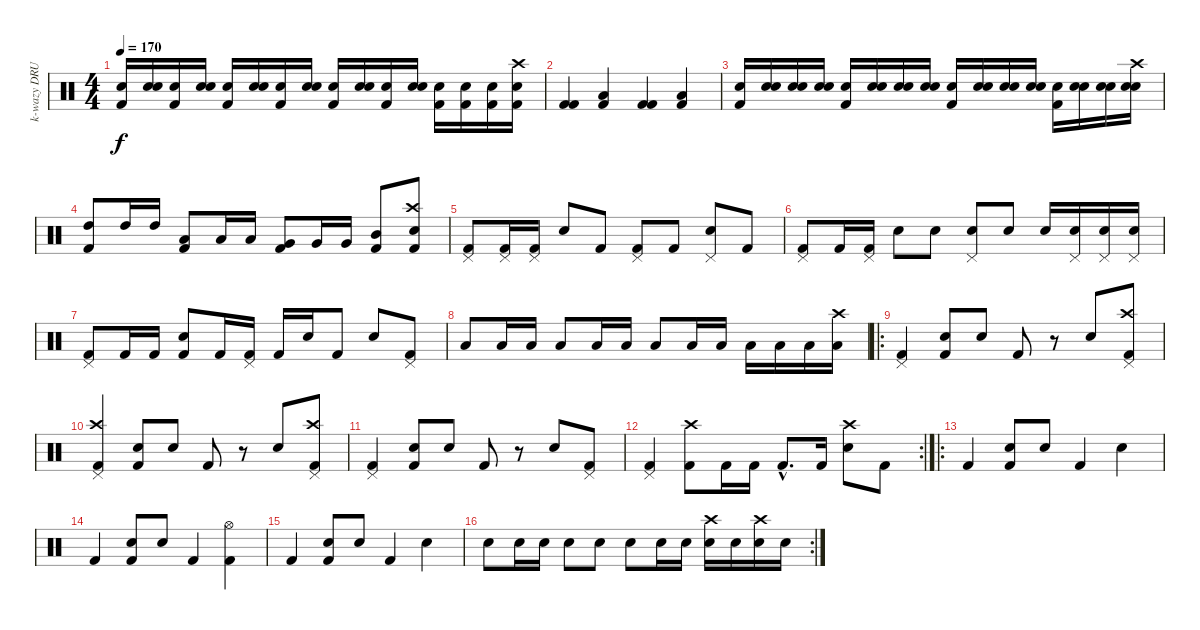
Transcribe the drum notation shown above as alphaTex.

\track ("k-wazy DRUMZ" "k-wazy DRU") {instrument percussion}
\staff {score}
\articulation defaults
\ts (4 4)
\tempo 170
\clef neutral
\ks c
("Electric Snare (hit)" "Kick (hit) 2").16{dy f} ("Electric Snare (hit)" "Electric Snare (hit)").16 ("Electric Snare (hit)" "Kick (hit) 2").16 ("Electric Snare (hit)" "Electric Snare (hit)").16 ("Electric Snare (hit)" "Kick (hit) 2").16 ("Electric Snare (hit)" "Electric Snare (hit)").16 ("Electric Snare (hit)" "Kick (hit) 2").16 ("Electric Snare (hit)" "Electric Snare (hit)").16 ("Electric Snare (hit)" "Kick (hit) 2").16 ("Electric Snare (hit)" "Electric Snare (hit)").16 ("Electric Snare (hit)" "Kick (hit) 2").16 ("Electric Snare (hit)" "Electric Snare (hit)").16 ("Electric Snare (hit)" "Kick (hit) 2").16 ("Electric Snare (hit)" "Kick (hit) 2").16 ("Electric Snare (hit)" "Kick (hit) 2").16 ("Crash high (hit)" "Electric Snare (hit)" "Kick (hit) 2").16 |
("Kick (hit) 2" "Kick (hit) 2").4 ("Low Tom (hit)" "Kick (hit) 2").4 ("Kick (hit) 2" "Kick (hit) 2").4 ("Low Tom (hit)" "Kick (hit) 2").4 |
("Electric Snare (hit)" "Kick (hit) 2").16 ("Electric Snare (hit)" "Electric Snare (hit)").16 ("Electric Snare (hit)" "Electric Snare (hit)").16 ("Electric Snare (hit)" "Electric Snare (hit)").16 ("Electric Snare (hit)" "Kick (hit) 2").16 ("Electric Snare (hit)" "Electric Snare (hit)").16 ("Electric Snare (hit)" "Electric Snare (hit)").16 ("Electric Snare (hit)" "Electric Snare (hit)").16 ("Electric Snare (hit)" "Kick (hit) 2").16 ("Electric Snare (hit)" "Electric Snare (hit)").16 ("Electric Snare (hit)" "Electric Snare (hit)").16 ("Electric Snare (hit)" "Electric Snare (hit)").16 ("Electric Snare (hit)" "Kick (hit) 2").16 ("Electric Snare (hit)" "Electric Snare (hit)").16 ("Electric Snare (hit)" "Electric Snare (hit)").16 ("Crash high (hit)" "Electric Snare (hit)" "Electric Snare (hit)").16 |
("High Tom (hit)" "Kick (hit) 2").8 "High Tom (hit)".16 "High Tom (hit)".16 ("Low Tom (hit)" "Kick (hit) 2").8 "Low Tom (hit)".16 "Low Tom (hit)".16 ("Very Low Tom (hit)" "Kick (hit) 2").8 "Very Low Tom (hit)".16 "Very Low Tom (hit)".16 ("Mid Tom (hit)" "Kick (hit) 2").8 ("Crash high (hit)" "Snare (hit) 2" "Kick (hit) 2").8 |
("Pedal Hi-Hat (hit)" "Kick (hit) 2").8 ("Pedal Hi-Hat (hit)" "Kick (hit) 2").16 ("Pedal Hi-Hat (hit)" "Kick (hit) 2").16 "Electric Snare (hit)".8 "Kick (hit) 2".8 ("Pedal Hi-Hat (hit)" "Kick (hit) 2").8 "Kick (hit) 2".8 ("Pedal Hi-Hat (hit)" "Electric Snare (hit)").8 "Kick (hit) 2".8 |
("Pedal Hi-Hat (hit)" "Kick (hit) 2").8 "Kick (hit) 2".16 ("Pedal Hi-Hat (hit)" "Kick (hit) 2").16 "Electric Snare (hit)".8 "Electric Snare (hit)".8 ("Pedal Hi-Hat (hit)" "Electric Snare (hit)").8 "Electric Snare (hit)".8 "Electric Snare (hit)".16 ("Pedal Hi-Hat (hit)" "Electric Snare (hit)").16 ("Pedal Hi-Hat (hit)" "Electric Snare (hit)").16 ("Pedal Hi-Hat (hit)" "Electric Snare (hit)").16 |
("Pedal Hi-Hat (hit)" "Kick (hit) 2").8 "Kick (hit) 2".16 "Kick (hit) 2".16 ("Electric Snare (hit)" "Kick (hit) 2").8 "Kick (hit) 2".16 ("Pedal Hi-Hat (hit)" "Kick (hit) 2").16 "Kick (hit) 2".16 "Electric Snare (hit)".16 "Kick (hit) 2".8 "Electric Snare (hit)".8 ("Pedal Hi-Hat (hit)" "Kick (hit) 2").8 |
"Low Tom (hit)".8 "Low Tom (hit)".16 "Low Tom (hit)".16 "Low Tom (hit)".8 "Low Tom (hit)".16 "Low Tom (hit)".16 "Low Tom (hit)".8 "Low Tom (hit)".16 "Low Tom (hit)".16 "Low Tom (hit)".16 "Low Tom (hit)".16 "Low Tom (hit)".16 ("Crash high (hit)" "Low Tom (hit)").16 |
\ro
("Pedal Hi-Hat (hit)" "Kick (hit) 2").4 ("Electric Snare (hit)" "Kick (hit) 2").8 "Electric Snare (hit)".8 "Kick (hit) 2".8 r.8 "Electric Snare (hit)".8 ("Crash high (hit)" "Pedal Hi-Hat (hit)" "Kick (hit) 2").8 |
("Crash high (hit)" "Pedal Hi-Hat (hit)" "Kick (hit) 2").4 ("Electric Snare (hit)" "Kick (hit) 2").8 "Electric Snare (hit)".8 "Kick (hit) 2".8 r.8 "Electric Snare (hit)".8 ("Crash high (hit)" "Pedal Hi-Hat (hit)" "Kick (hit) 2").8 |
("Pedal Hi-Hat (hit)" "Kick (hit) 2").4 ("Electric Snare (hit)" "Kick (hit) 2").8 "Electric Snare (hit)".8 "Kick (hit) 2".8 r.8 "Electric Snare (hit)".8 ("Pedal Hi-Hat (hit)" "Kick (hit) 2").8 |
\rc 2
("Pedal Hi-Hat (hit)" "Kick (hit) 2").4 ("Crash high (hit)" "Kick (hit) 2").8 "Kick (hit) 2".16 "Kick (hit) 2".16 "Kick (hit) 2"{hac}.8{d} "Kick (hit) 2".16 ("Crash high (hit)" "Electric Snare (hit)").8 "Kick (hit) 2".8 |
\ro "Kick (hit) 2".4
("Electric Snare (hit)" "Kick (hit) 2").8 "Electric Snare (hit)".8 "Kick (hit) 2".4 "Electric Snare (hit)".4 |
"Kick (hit) 2".4 ("Electric Snare (hit)" "Kick (hit) 2").8 "Electric Snare (hit)".8 "Kick (hit) 2".4 ("Hi-Hat (open)" "Kick (hit) 2").4 |
"Kick (hit) 2".4 ("Electric Snare (hit)" "Kick (hit) 2").8 "Electric Snare (hit)".8 "Kick (hit) 2".4 "Electric Snare (hit)".4 |
\rc 2 "Electric Snare (hit)".8 "Electric Snare (hit)".16 "Electric Snare (hit)".16 "Electric Snare (hit)".8 "Electric Snare (hit)".8 "Electric Snare (hit)".8 "Electric Snare (hit)".16 "Electric Snare (hit)".16
("Crash high (hit)" "Electric Snare (hit)").16 "Electric Snare (hit)".16 ("Crash high (hit)" "Electric Snare (hit)").16 "Electric Snare (hit)".16
